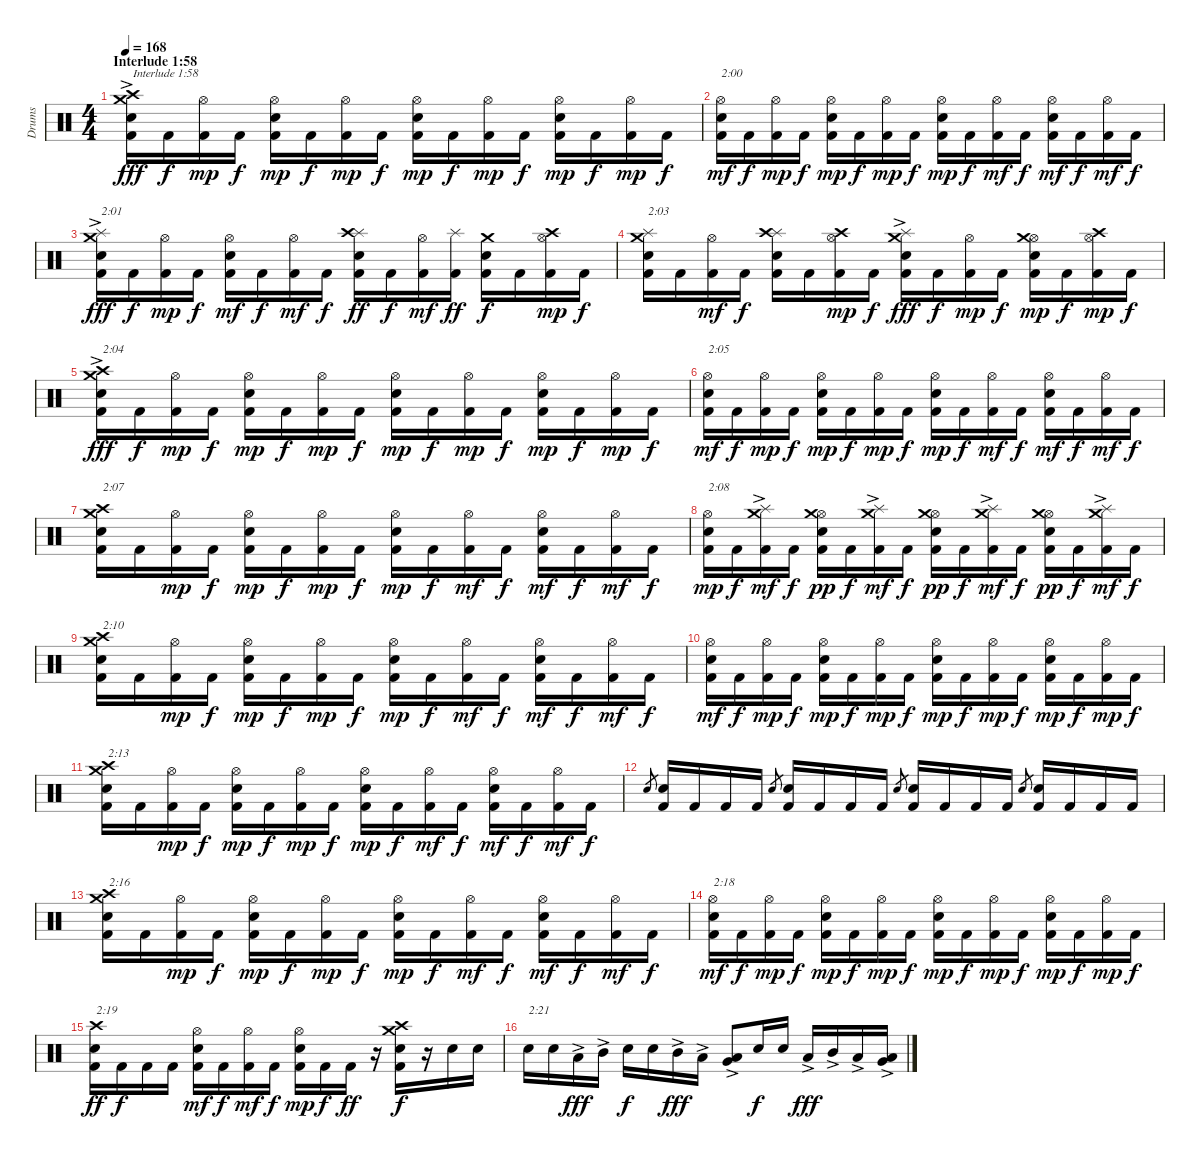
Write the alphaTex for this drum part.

\track ("Drums" "Drums") {instrument percussion}
\staff {score}
\articulation defaults
\ts (4 4)
\section ("" "Interlude 1:58")
\tempo 168
\clef neutral
\ks c
("Kick (hit) 2" "Electric Snare (hit)" "Crash high (hit)"{ac} "Crash medium (hit)"{ac}).16{txt "Interlude 1:58" dy fff} "Kick (hit) 2".16{dy f} ("Kick (hit) 2" "Hi-Hat (open)").16{dy mp} "Kick (hit) 2".16{dy f} ("Kick (hit) 2" "Electric Snare (hit)" "Hi-Hat (open)").16{dy mp} "Kick (hit) 2".16{dy f} ("Kick (hit) 2" "Hi-Hat (open)").16{dy mp} "Kick (hit) 2".16{dy f} ("Kick (hit) 2" "Electric Snare (hit)" "Hi-Hat (open)").16{dy mp} "Kick (hit) 2".16{dy f} ("Kick (hit) 2" "Hi-Hat (open)").16{dy mp} "Kick (hit) 2".16{dy f} ("Kick (hit) 2" "Electric Snare (hit)" "Hi-Hat (open)").16{dy mp} "Kick (hit) 2".16{dy f} ("Kick (hit) 2" "Hi-Hat (open)").16{dy mp} "Kick (hit) 2".16{dy f} |
("Kick (hit) 2" "Electric Snare (hit)" "Hi-Hat (open)").16{txt "2:00" dy mf} "Kick (hit) 2".16{dy f} ("Kick (hit) 2" "Hi-Hat (open)").16{dy mp} "Kick (hit) 2".16{dy f} ("Kick (hit) 2" "Electric Snare (hit)" "Hi-Hat (open)").16{dy mp} "Kick (hit) 2".16{dy f} ("Kick (hit) 2" "Hi-Hat (open)").16{dy mp} "Kick (hit) 2".16{dy f} ("Kick (hit) 2" "Electric Snare (hit)" "Hi-Hat (open)").16{dy mp} "Kick (hit) 2".16{dy f} ("Kick (hit) 2" "Hi-Hat (open)").16{dy mf} "Kick (hit) 2".16{dy f} ("Kick (hit) 2" "Electric Snare (hit)" "Hi-Hat (open)").16{dy mf} "Kick (hit) 2".16{dy f} ("Kick (hit) 2" "Hi-Hat (open)").16{dy mf} "Kick (hit) 2".16{dy f} |
("Kick (hit) 2" "Electric Snare (hit)" "Splash (hit)" "Crash medium (hit)"{ac}).16{txt "2:01" dy fff} "Kick (hit) 2".16{dy f} ("Kick (hit) 2" "Hi-Hat (open)").16{dy mp} "Kick (hit) 2".16{dy f} ("Kick (hit) 2" "Electric Snare (hit)" "Hi-Hat (open)").16{dy mf} "Kick (hit) 2".16{dy f} ("Kick (hit) 2" "Hi-Hat (open)").16{dy mf} "Kick (hit) 2".16{dy f} ("Kick (hit) 2" "Electric Snare (hit)" "Splash (hit)" "Crash high (hit)").16{dy ff} "Kick (hit) 2".16{dy f} ("Kick (hit) 2" "Hi-Hat (open)").16{dy mf} ("Kick (hit) 2" "Splash (hit)").16{dy ff} ("Kick (hit) 2" "Electric Snare (hit)" "Crash medium (hit)").16{dy f} "Kick (hit) 2".16 ("Kick (hit) 2" "Hi-Hat (open)" "Crash high (hit)").16{dy mp} "Kick (hit) 2".16{dy f} |
("Kick (hit) 2" "Electric Snare (hit)" "Crash medium (hit)" "Splash (hit)").16{txt "2:03"} "Kick (hit) 2".16 ("Kick (hit) 2" "Hi-Hat (open)").16{dy mf} "Kick (hit) 2".16{dy f} ("Kick (hit) 2" "Electric Snare (hit)" "Splash (hit)" "Crash high (hit)").16 "Kick (hit) 2".16 ("Kick (hit) 2" "Hi-Hat (open)" "Crash high (hit)").16{dy mp} "Kick (hit) 2".16{dy f} ("Kick (hit) 2" "Electric Snare (hit)" "Crash medium (hit)" "Splash (hit)"{ac}).16{dy fff} "Kick (hit) 2".16{dy f} ("Kick (hit) 2" "Hi-Hat (open)").16{dy mp} "Kick (hit) 2".16{dy f} ("Kick (hit) 2" "Electric Snare (hit)" "Hi-Hat (open)" "Crash medium (hit)").16{dy mp} "Kick (hit) 2".16{dy f} ("Kick (hit) 2" "Hi-Hat (open)" "Crash high (hit)").16{dy mp} "Kick (hit) 2".16{dy f} |
("Kick (hit) 2" "Electric Snare (hit)" "Crash high (hit)"{ac} "Crash medium (hit)"{ac}).16{txt "2:04" dy fff} "Kick (hit) 2".16{dy f} ("Kick (hit) 2" "Hi-Hat (open)").16{dy mp} "Kick (hit) 2".16{dy f} ("Kick (hit) 2" "Electric Snare (hit)" "Hi-Hat (open)").16{dy mp} "Kick (hit) 2".16{dy f} ("Kick (hit) 2" "Hi-Hat (open)").16{dy mp} "Kick (hit) 2".16{dy f} ("Kick (hit) 2" "Electric Snare (hit)" "Hi-Hat (open)").16{dy mp} "Kick (hit) 2".16{dy f} ("Kick (hit) 2" "Hi-Hat (open)").16{dy mp} "Kick (hit) 2".16{dy f} ("Kick (hit) 2" "Electric Snare (hit)" "Hi-Hat (open)").16{dy mp} "Kick (hit) 2".16{dy f} ("Kick (hit) 2" "Hi-Hat (open)").16{dy mp} "Kick (hit) 2".16{dy f} |
("Kick (hit) 2" "Electric Snare (hit)" "Hi-Hat (open)").16{txt "2:05" dy mf} "Kick (hit) 2".16{dy f} ("Kick (hit) 2" "Hi-Hat (open)").16{dy mp} "Kick (hit) 2".16{dy f} ("Kick (hit) 2" "Electric Snare (hit)" "Hi-Hat (open)").16{dy mp} "Kick (hit) 2".16{dy f} ("Kick (hit) 2" "Hi-Hat (open)").16{dy mp} "Kick (hit) 2".16{dy f} ("Kick (hit) 2" "Electric Snare (hit)" "Hi-Hat (open)").16{dy mp} "Kick (hit) 2".16{dy f} ("Kick (hit) 2" "Hi-Hat (open)").16{dy mf} "Kick (hit) 2".16{dy f} ("Kick (hit) 2" "Electric Snare (hit)" "Hi-Hat (open)").16{dy mf} "Kick (hit) 2".16{dy f} ("Kick (hit) 2" "Hi-Hat (open)").16{dy mf} "Kick (hit) 2".16{dy f} |
("Kick (hit) 2" "Electric Snare (hit)" "Crash high (hit)" "Crash medium (hit)").16{txt "2:07"} "Kick (hit) 2".16 ("Kick (hit) 2" "Hi-Hat (open)").16{dy mp} "Kick (hit) 2".16{dy f} ("Kick (hit) 2" "Electric Snare (hit)" "Hi-Hat (open)").16{dy mp} "Kick (hit) 2".16{dy f} ("Kick (hit) 2" "Hi-Hat (open)").16{dy mp} "Kick (hit) 2".16{dy f} ("Kick (hit) 2" "Electric Snare (hit)" "Hi-Hat (open)").16{dy mp} "Kick (hit) 2".16{dy f} ("Kick (hit) 2" "Hi-Hat (open)").16{dy mf} "Kick (hit) 2".16{dy f} ("Kick (hit) 2" "Electric Snare (hit)" "Hi-Hat (open)").16{dy mf} "Kick (hit) 2".16{dy f} ("Kick (hit) 2" "Hi-Hat (open)").16{dy mf} "Kick (hit) 2".16{dy f} |
("Kick (hit) 2" "Electric Snare (hit)" "Hi-Hat (open)").16{txt "2:08" dy mp} "Kick (hit) 2".16{dy f} ("Kick (hit) 2" "Crash medium (hit)" "Splash (hit)"{ac}).16{dy mf} "Kick (hit) 2".16{dy f} ("Kick (hit) 2" "Electric Snare (hit)" "Hi-Hat (open)" "Crash medium (hit)").16{dy pp} "Kick (hit) 2".16{dy f} ("Kick (hit) 2" "Crash medium (hit)" "Splash (hit)"{ac}).16{dy mf} "Kick (hit) 2".16{dy f} ("Kick (hit) 2" "Electric Snare (hit)" "Hi-Hat (open)" "Crash medium (hit)").16{dy pp} "Kick (hit) 2".16{dy f} ("Kick (hit) 2" "Crash medium (hit)" "Splash (hit)"{ac}).16{dy mf} "Kick (hit) 2".16{dy f} ("Kick (hit) 2" "Electric Snare (hit)" "Hi-Hat (open)" "Crash medium (hit)").16{dy pp} "Kick (hit) 2".16{dy f} ("Kick (hit) 2" "Crash medium (hit)" "Splash (hit)"{ac}).16{dy mf} "Kick (hit) 2".16{dy f} |
("Kick (hit) 2" "Electric Snare (hit)" "Crash high (hit)" "Crash medium (hit)").16{txt "2:10"} "Kick (hit) 2".16 ("Kick (hit) 2" "Hi-Hat (open)").16{dy mp} "Kick (hit) 2".16{dy f} ("Kick (hit) 2" "Electric Snare (hit)" "Hi-Hat (open)").16{dy mp} "Kick (hit) 2".16{dy f} ("Kick (hit) 2" "Hi-Hat (open)").16{dy mp} "Kick (hit) 2".16{dy f} ("Kick (hit) 2" "Electric Snare (hit)" "Hi-Hat (open)").16{dy mp} "Kick (hit) 2".16{dy f} ("Kick (hit) 2" "Hi-Hat (open)").16{dy mf} "Kick (hit) 2".16{dy f} ("Kick (hit) 2" "Electric Snare (hit)" "Hi-Hat (open)").16{dy mf} "Kick (hit) 2".16{dy f} ("Kick (hit) 2" "Hi-Hat (open)").16{dy mf} "Kick (hit) 2".16{dy f} |
("Kick (hit) 2" "Electric Snare (hit)" "Hi-Hat (open)").16{dy mf} "Kick (hit) 2".16{dy f} ("Kick (hit) 2" "Hi-Hat (open)").16{dy mp} "Kick (hit) 2".16{dy f} ("Kick (hit) 2" "Electric Snare (hit)" "Hi-Hat (open)").16{dy mp} "Kick (hit) 2".16{dy f} ("Kick (hit) 2" "Hi-Hat (open)").16{dy mp} "Kick (hit) 2".16{dy f} ("Kick (hit) 2" "Electric Snare (hit)" "Hi-Hat (open)").16{dy mp} "Kick (hit) 2".16{dy f} ("Kick (hit) 2" "Hi-Hat (open)").16{dy mp} "Kick (hit) 2".16{dy f} ("Kick (hit) 2" "Electric Snare (hit)" "Hi-Hat (open)").16{dy mp} "Kick (hit) 2".16{dy f} ("Kick (hit) 2" "Hi-Hat (open)").16{dy mp} "Kick (hit) 2".16{dy f} |
("Kick (hit) 2" "Electric Snare (hit)" "Crash high (hit)" "Crash medium (hit)").16{txt "2:13"} "Kick (hit) 2".16 ("Kick (hit) 2" "Hi-Hat (open)").16{dy mp} "Kick (hit) 2".16{dy f} ("Kick (hit) 2" "Electric Snare (hit)" "Hi-Hat (open)").16{dy mp} "Kick (hit) 2".16{dy f} ("Kick (hit) 2" "Hi-Hat (open)").16{dy mp} "Kick (hit) 2".16{dy f} ("Kick (hit) 2" "Electric Snare (hit)" "Hi-Hat (open)").16{dy mp} "Kick (hit) 2".16{dy f} ("Kick (hit) 2" "Hi-Hat (open)").16{dy mf} "Kick (hit) 2".16{dy f} ("Kick (hit) 2" "Electric Snare (hit)" "Hi-Hat (open)").16{dy mf} "Kick (hit) 2".16{dy f} ("Kick (hit) 2" "Hi-Hat (open)").16{dy mf} "Kick (hit) 2".16{dy f} |
"Electric Snare (hit)".8{gr} ("Kick (hit) 2" "Electric Snare (hit)").16 "Kick (hit) 2".16 "Kick (hit) 2".16 "Kick (hit) 2".16 "Electric Snare (hit)".8{gr} ("Kick (hit) 2" "Electric Snare (hit)").16 "Kick (hit) 2".16 "Kick (hit) 2".16 "Kick (hit) 2".16 "Electric Snare (hit)".8{gr} ("Kick (hit) 2" "Electric Snare (hit)").16 "Kick (hit) 2".16 "Kick (hit) 2".16 "Kick (hit) 2".16 "Electric Snare (hit)".8{gr} ("Kick (hit) 2" "Electric Snare (hit)").16 "Kick (hit) 2".16 "Kick (hit) 2".16 "Kick (hit) 2".16 |
("Kick (hit) 2" "Electric Snare (hit)" "Crash high (hit)" "Crash medium (hit)").16{txt "2:16"} "Kick (hit) 2".16 ("Kick (hit) 2" "Hi-Hat (open)").16{dy mp} "Kick (hit) 2".16{dy f} ("Kick (hit) 2" "Electric Snare (hit)" "Hi-Hat (open)").16{dy mp} "Kick (hit) 2".16{dy f} ("Kick (hit) 2" "Hi-Hat (open)").16{dy mp} "Kick (hit) 2".16{dy f} ("Kick (hit) 2" "Electric Snare (hit)" "Hi-Hat (open)").16{dy mp} "Kick (hit) 2".16{dy f} ("Kick (hit) 2" "Hi-Hat (open)").16{dy mf} "Kick (hit) 2".16{dy f} ("Kick (hit) 2" "Electric Snare (hit)" "Hi-Hat (open)").16{dy mf} "Kick (hit) 2".16{dy f} ("Kick (hit) 2" "Hi-Hat (open)").16{dy mf} "Kick (hit) 2".16{dy f} |
("Kick (hit) 2" "Electric Snare (hit)" "Hi-Hat (open)").16{txt "2:18" dy mf} "Kick (hit) 2".16{dy f} ("Kick (hit) 2" "Hi-Hat (open)").16{dy mp} "Kick (hit) 2".16{dy f} ("Kick (hit) 2" "Electric Snare (hit)" "Hi-Hat (open)").16{dy mp} "Kick (hit) 2".16{dy f} ("Kick (hit) 2" "Hi-Hat (open)").16{dy mp} "Kick (hit) 2".16{dy f} ("Kick (hit) 2" "Electric Snare (hit)" "Hi-Hat (open)").16{dy mp} "Kick (hit) 2".16{dy f} ("Kick (hit) 2" "Hi-Hat (open)").16{dy mp} "Kick (hit) 2".16{dy f} ("Kick (hit) 2" "Electric Snare (hit)" "Hi-Hat (open)").16{dy mp} "Kick (hit) 2".16{dy f} ("Kick (hit) 2" "Hi-Hat (open)").16{dy mp} "Kick (hit) 2".16{dy f} |
("Kick (hit) 2" "Electric Snare (hit)" "Crash high (hit)").16{txt "2:19" dy ff} "Kick (hit) 2".16{dy f} "Kick (hit) 2".16 "Kick (hit) 2".16 ("Kick (hit) 2" "Electric Snare (hit)" "Hi-Hat (open)").16{dy mf} "Kick (hit) 2".16{dy f} ("Kick (hit) 2" "Hi-Hat (open)").16{dy mf} "Kick (hit) 2".16{dy f} ("Kick (hit) 2" "Electric Snare (hit)" "Hi-Hat (open)").16{dy mp} "Kick (hit) 2".16{dy f} "Kick (hit) 2".16{dy ff} r.16 ("Kick (hit) 2" "Electric Snare (hit)" "Crash medium (hit)" "Crash high (hit)").16{dy f} r.16 "Electric Snare (hit)".16 "Electric Snare (hit)".16 |
"Electric Snare (hit)".16{txt "2:21"} "Electric Snare (hit)".16 "Low Tom (hit)"{ac}.16{dy fff} "Mid Tom (hit)"{ac}.16 "Electric Snare (hit)".16{dy f} "Electric Snare (hit)".16 "Mid Tom (hit)"{ac}.16{dy fff} "Low Tom (hit)"{ac}.16 ("Very Low Tom (hit)"{ac} "Low Tom (hit)"{ac}).8 "Electric Snare (hit)".16{dy f} "Electric Snare (hit)".16 "Low Tom (hit)"{ac}.16{dy fff} "Mid Tom (hit)"{ac}.16 "Low Tom (hit)"{ac}.16 ("Very Low Tom (hit)"{ac} "Low Tom (hit)"{ac}).16
